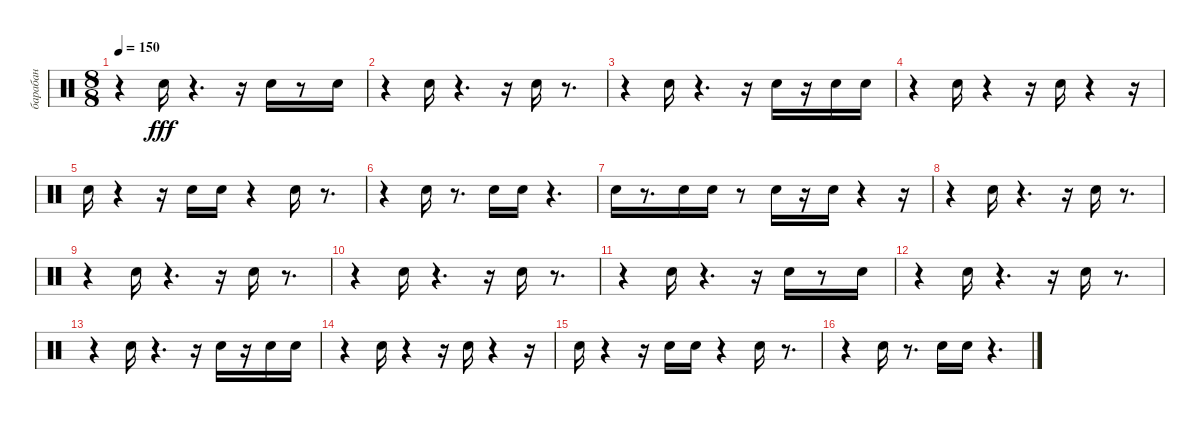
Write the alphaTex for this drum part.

\track ("барабан" "барабан") {instrument percussion}
\staff {score}
\articulation defaults
\ts (8 8)
\tempo 150
\clef neutral
\ks c
r.4{dy fff} "Snare (hit) 2".16 r.4{d} r.16 "Snare (hit) 2".16 r.8 "Snare (hit) 2".16 |
r.4 "Snare (hit) 2".16 r.4{d} r.16 "Snare (hit) 2".16 r.8{d} |
r.4 "Snare (hit) 2".16 r.4{d} r.16 "Snare (hit) 2".16 r.16 "Snare (hit) 2".16 "Snare (hit) 2".16 |
r.4 "Snare (hit) 2".16 r.4 r.16 "Snare (hit) 2".16 r.4 r.16 |
"Snare (hit) 2".16 r.4 r.16 "Snare (hit) 2".16 "Snare (hit) 2".16 r.4 "Snare (hit) 2".16 r.8{d} |
r.4 "Snare (hit) 2".16 r.8{d} "Snare (hit) 2".16 "Snare (hit) 2".16 r.4{d} |
"Snare (hit) 2".16 r.8{d} "Snare (hit) 2".16 "Snare (hit) 2".16 r.8 "Snare (hit) 2".16 r.16 "Snare (hit) 2".16 r.4 r.16 |
r.4 "Snare (hit) 2".16 r.4{d} r.16 "Snare (hit) 2".16 r.8{d} |
r.4 "Snare (hit) 2".16 r.4{d} r.16 "Snare (hit) 2".16 r.8{d} |
r.4 "Snare (hit) 2".16 r.4{d} r.16 "Snare (hit) 2".16 r.8{d} |
r.4 "Snare (hit) 2".16 r.4{d} r.16 "Snare (hit) 2".16 r.8 "Snare (hit) 2".16 |
r.4 "Snare (hit) 2".16 r.4{d} r.16 "Snare (hit) 2".16 r.8{d} |
r.4 "Snare (hit) 2".16 r.4{d} r.16 "Snare (hit) 2".16 r.16 "Snare (hit) 2".16 "Snare (hit) 2".16 |
r.4 "Snare (hit) 2".16 r.4 r.16 "Snare (hit) 2".16 r.4 r.16 |
"Snare (hit) 2".16 r.4 r.16 "Snare (hit) 2".16 "Snare (hit) 2".16 r.4 "Snare (hit) 2".16 r.8{d} |
r.4 "Snare (hit) 2".16 r.8{d} "Snare (hit) 2".16 "Snare (hit) 2".16 r.4{d}
